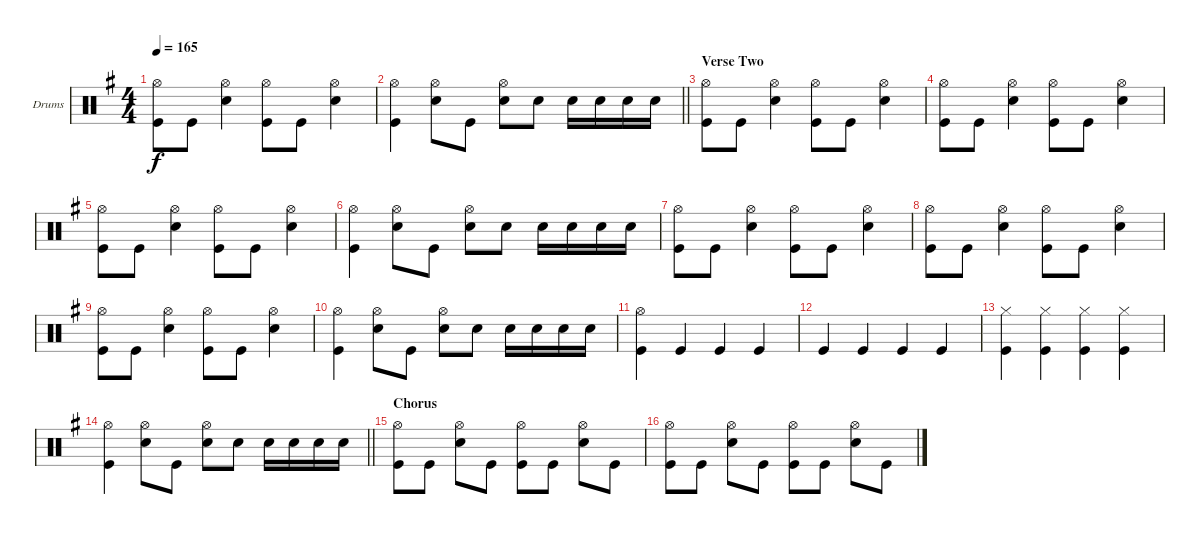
\bracketExtendMode groupsimilarinstruments
\firstSystemTrackNameOrientation horizontal
\otherSystemsTrackNameOrientation horizontal
\track ("Drumkit" "Drums") {instrument percussion}
\staff {score}
\articulation defaults
\ts (4 4)
\tempo 165
\clef neutral
\ks eminor
("Hi-Hat (open)" "Kick (hit)").8{dy f} "Kick (hit)".8 ("Hi-Hat (open)" "Snare (hit) 2").4 ("Hi-Hat (open)" "Kick (hit)").8 "Kick (hit)".8 ("Hi-Hat (open)" "Snare (hit) 2").4 |
\barLineRight lightlight
("Hi-Hat (open)" "Kick (hit)").4 ("Hi-Hat (open)" "Snare (hit) 2").8 "Kick (hit)".8 ("Hi-Hat (open)" "Snare (hit) 2").8 "Snare (hit) 2".8 "Snare (hit) 2".16 "Snare (hit) 2".16 "Snare (hit) 2".16 "Snare (hit) 2".16 |
\section ("" "Verse Two")
("Hi-Hat (open)" "Kick (hit)").8 "Kick (hit)".8 ("Hi-Hat (open)" "Snare (hit) 2").4 ("Hi-Hat (open)" "Kick (hit)").8 "Kick (hit)".8 ("Hi-Hat (open)" "Snare (hit) 2").4 |
("Hi-Hat (open)" "Kick (hit)").8 "Kick (hit)".8 ("Hi-Hat (open)" "Snare (hit) 2").4 ("Hi-Hat (open)" "Kick (hit)").8 "Kick (hit)".8 ("Hi-Hat (open)" "Snare (hit) 2").4 |
("Hi-Hat (open)" "Kick (hit)").8 "Kick (hit)".8 ("Hi-Hat (open)" "Snare (hit) 2").4 ("Hi-Hat (open)" "Kick (hit)").8 "Kick (hit)".8 ("Hi-Hat (open)" "Snare (hit) 2").4 |
("Hi-Hat (open)" "Kick (hit)").4 ("Hi-Hat (open)" "Snare (hit) 2").8 "Kick (hit)".8 ("Hi-Hat (open)" "Snare (hit) 2").8 "Snare (hit) 2".8 "Snare (hit) 2".16 "Snare (hit) 2".16 "Snare (hit) 2".16 "Snare (hit) 2".16 |
("Hi-Hat (open)" "Kick (hit)").8 "Kick (hit)".8 ("Hi-Hat (open)" "Snare (hit) 2").4 ("Hi-Hat (open)" "Kick (hit)").8 "Kick (hit)".8 ("Hi-Hat (open)" "Snare (hit) 2").4 |
("Hi-Hat (open)" "Kick (hit)").8 "Kick (hit)".8 ("Hi-Hat (open)" "Snare (hit) 2").4 ("Hi-Hat (open)" "Kick (hit)").8 "Kick (hit)".8 ("Hi-Hat (open)" "Snare (hit) 2").4 |
("Hi-Hat (open)" "Kick (hit)").8 "Kick (hit)".8 ("Hi-Hat (open)" "Snare (hit) 2").4 ("Hi-Hat (open)" "Kick (hit)").8 "Kick (hit)".8 ("Hi-Hat (open)" "Snare (hit) 2").4 |
("Hi-Hat (open)" "Kick (hit)").4 ("Hi-Hat (open)" "Snare (hit) 2").8 "Kick (hit)".8 ("Hi-Hat (open)" "Snare (hit) 2").8 "Snare (hit) 2".8 "Snare (hit) 2".16 "Snare (hit) 2".16 "Snare (hit) 2".16 "Snare (hit) 2".16 |
("Hi-Hat (open)" "Kick (hit)").4 "Kick (hit)".4 "Kick (hit)".4 "Kick (hit)".4 |
"Kick (hit)".4 "Kick (hit)".4 "Kick (hit)".4 "Kick (hit)".4 |
("Hi-Hat (closed)" "Kick (hit)").4 ("Hi-Hat (closed)" "Kick (hit)").4 ("Hi-Hat (closed)" "Kick (hit)").4 ("Hi-Hat (closed)" "Kick (hit)").4 |
\barLineRight lightlight
("Hi-Hat (open)" "Kick (hit)").4 ("Hi-Hat (open)" "Snare (hit) 2").8 "Kick (hit)".8 ("Hi-Hat (open)" "Snare (hit) 2").8 "Snare (hit) 2".8 "Snare (hit) 2".16 "Snare (hit) 2".16 "Snare (hit) 2".16 "Snare (hit) 2".16 |
\section ("" "Chorus")
("Hi-Hat (open)" "Kick (hit)").8 "Kick (hit)".8 ("Hi-Hat (open)" "Snare (hit) 2").8 "Kick (hit)".8 ("Hi-Hat (open)" "Kick (hit)").8 "Kick (hit)".8 ("Hi-Hat (open)" "Snare (hit) 2").8 "Kick (hit)".8 |
("Hi-Hat (open)" "Kick (hit)").8 "Kick (hit)".8 ("Hi-Hat (open)" "Snare (hit) 2").8 "Kick (hit)".8 ("Hi-Hat (open)" "Kick (hit)").8 "Kick (hit)".8 ("Hi-Hat (open)" "Snare (hit) 2").8 "Kick (hit)".8
